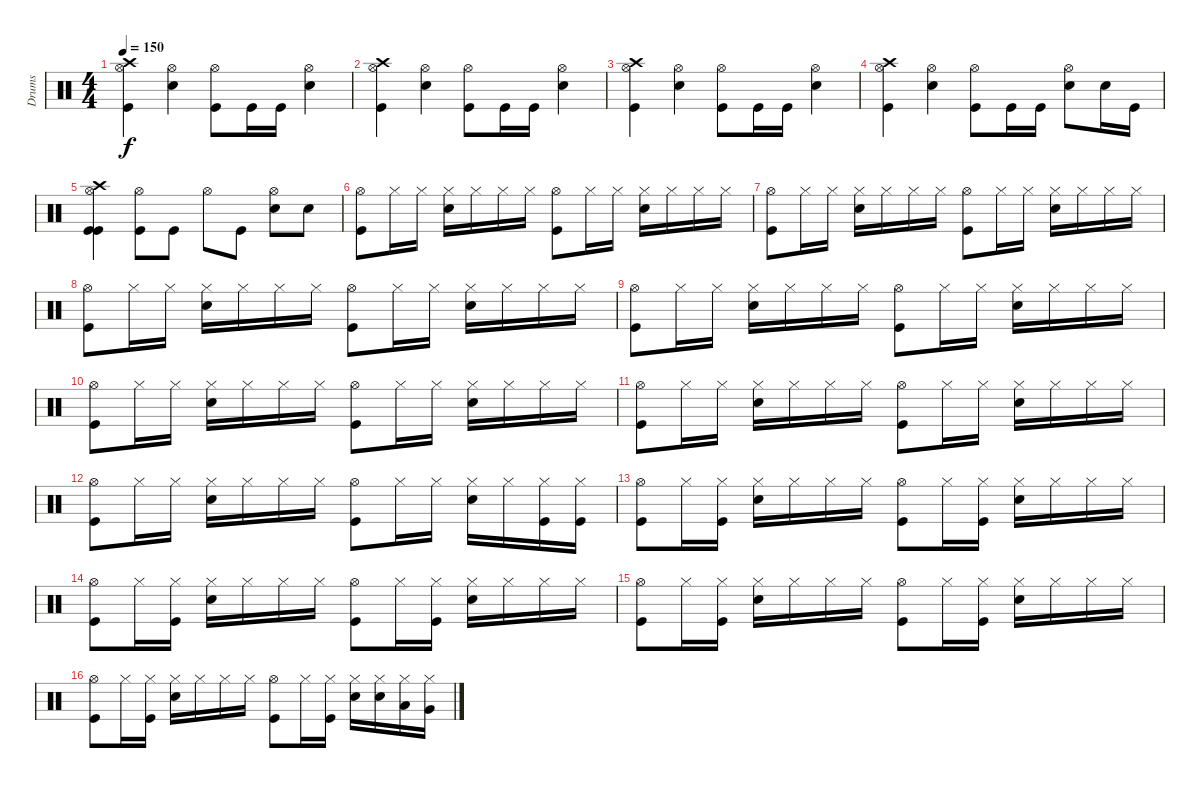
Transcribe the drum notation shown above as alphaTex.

\track ("Drums" "Drums") {instrument percussion}
\staff {score}
\articulation defaults
\ts (4 4)
\tempo 150
\clef neutral
\ks c
("Hi-Hat (open)" "Crash high (hit)" "Kick (hit)").4{dy f} ("Hi-Hat (open)" "Electric Snare (hit)").4 ("Hi-Hat (open)" "Kick (hit)").8 "Kick (hit)".16 "Kick (hit)".16 ("Hi-Hat (open)" "Electric Snare (hit)").4 |
("Hi-Hat (open)" "Crash high (hit)" "Kick (hit)").4 ("Hi-Hat (open)" "Electric Snare (hit)").4 ("Hi-Hat (open)" "Kick (hit)").8 "Kick (hit)".16 "Kick (hit)".16 ("Hi-Hat (open)" "Electric Snare (hit)").4 |
("Hi-Hat (open)" "Crash high (hit)" "Kick (hit)").4 ("Hi-Hat (open)" "Electric Snare (hit)").4 ("Hi-Hat (open)" "Kick (hit)").8 "Kick (hit)".16 "Kick (hit)".16 ("Hi-Hat (open)" "Electric Snare (hit)").4 |
("Hi-Hat (open)" "Crash high (hit)" "Kick (hit)").4 ("Hi-Hat (open)" "Electric Snare (hit)").4 ("Hi-Hat (open)" "Kick (hit)").8 "Kick (hit)".16 "Kick (hit)".16 ("Hi-Hat (open)" "Electric Snare (hit)").8 "Electric Snare (hit)".16 "Kick (hit)".16 |
("Crash high (hit)" "Hi-Hat (open)" "Kick (hit)" "Kick (hit)").4 ("Hi-Hat (open)" "Kick (hit)").8 "Kick (hit)".8 "Hi-Hat (open)".8 "Kick (hit)".8 ("Hi-Hat (open)" "Electric Snare (hit)").8 "Electric Snare (hit)".8 |
("Hi-Hat (open)" "Kick (hit)").8 "Hi-Hat (closed)".16 "Hi-Hat (closed)".16 ("Hi-Hat (closed)" "Electric Snare (hit)").16 "Hi-Hat (closed)".16 "Hi-Hat (closed)".16 "Hi-Hat (closed)".16 ("Hi-Hat (open)" "Kick (hit)").8 "Hi-Hat (closed)".16 "Hi-Hat (closed)".16 ("Hi-Hat (closed)" "Electric Snare (hit)").16 "Hi-Hat (closed)".16 "Hi-Hat (closed)".16 "Hi-Hat (closed)".16 |
("Hi-Hat (open)" "Kick (hit)").8 "Hi-Hat (closed)".16 "Hi-Hat (closed)".16 ("Hi-Hat (closed)" "Electric Snare (hit)").16 "Hi-Hat (closed)".16 "Hi-Hat (closed)".16 "Hi-Hat (closed)".16 ("Hi-Hat (open)" "Kick (hit)").8 "Hi-Hat (closed)".16 "Hi-Hat (closed)".16 ("Hi-Hat (closed)" "Electric Snare (hit)").16 "Hi-Hat (closed)".16 "Hi-Hat (closed)".16 "Hi-Hat (closed)".16 |
("Hi-Hat (open)" "Kick (hit)").8 "Hi-Hat (closed)".16 "Hi-Hat (closed)".16 ("Hi-Hat (closed)" "Electric Snare (hit)").16 "Hi-Hat (closed)".16 "Hi-Hat (closed)".16 "Hi-Hat (closed)".16 ("Hi-Hat (open)" "Kick (hit)").8 "Hi-Hat (closed)".16 "Hi-Hat (closed)".16 ("Hi-Hat (closed)" "Electric Snare (hit)").16 "Hi-Hat (closed)".16 "Hi-Hat (closed)".16 "Hi-Hat (closed)".16 |
("Hi-Hat (open)" "Kick (hit)").8 "Hi-Hat (closed)".16 "Hi-Hat (closed)".16 ("Hi-Hat (closed)" "Electric Snare (hit)").16 "Hi-Hat (closed)".16 "Hi-Hat (closed)".16 "Hi-Hat (closed)".16 ("Hi-Hat (open)" "Kick (hit)").8 "Hi-Hat (closed)".16 "Hi-Hat (closed)".16 ("Hi-Hat (closed)" "Electric Snare (hit)").16 "Hi-Hat (closed)".16 "Hi-Hat (closed)".16 "Hi-Hat (closed)".16 |
("Hi-Hat (open)" "Kick (hit)").8 "Hi-Hat (closed)".16 "Hi-Hat (closed)".16 ("Hi-Hat (closed)" "Electric Snare (hit)").16 "Hi-Hat (closed)".16 "Hi-Hat (closed)".16 "Hi-Hat (closed)".16 ("Hi-Hat (open)" "Kick (hit)").8 "Hi-Hat (closed)".16 "Hi-Hat (closed)".16 ("Hi-Hat (closed)" "Electric Snare (hit)").16 "Hi-Hat (closed)".16 "Hi-Hat (closed)".16 "Hi-Hat (closed)".16 |
("Hi-Hat (open)" "Kick (hit)").8 "Hi-Hat (closed)".16 "Hi-Hat (closed)".16 ("Hi-Hat (closed)" "Electric Snare (hit)").16 "Hi-Hat (closed)".16 "Hi-Hat (closed)".16 "Hi-Hat (closed)".16 ("Hi-Hat (open)" "Kick (hit)").8 "Hi-Hat (closed)".16 "Hi-Hat (closed)".16 ("Hi-Hat (closed)" "Electric Snare (hit)").16 "Hi-Hat (closed)".16 "Hi-Hat (closed)".16 "Hi-Hat (closed)".16 |
("Hi-Hat (open)" "Kick (hit)").8 "Hi-Hat (closed)".16 "Hi-Hat (closed)".16 ("Hi-Hat (closed)" "Electric Snare (hit)").16 "Hi-Hat (closed)".16 "Hi-Hat (closed)".16 "Hi-Hat (closed)".16 ("Hi-Hat (open)" "Kick (hit)").8 "Hi-Hat (closed)".16 "Hi-Hat (closed)".16 ("Hi-Hat (closed)" "Electric Snare (hit)").16 "Hi-Hat (closed)".16 ("Hi-Hat (closed)" "Kick (hit)").16 ("Hi-Hat (closed)" "Kick (hit)").16 |
("Hi-Hat (open)" "Kick (hit)").8 "Hi-Hat (closed)".16 ("Hi-Hat (closed)" "Kick (hit)").16 ("Hi-Hat (closed)" "Electric Snare (hit)").16 "Hi-Hat (closed)".16 "Hi-Hat (closed)".16 "Hi-Hat (closed)".16 ("Hi-Hat (open)" "Kick (hit)").8 "Hi-Hat (closed)".16 ("Hi-Hat (closed)" "Kick (hit)").16 ("Hi-Hat (closed)" "Electric Snare (hit)").16 "Hi-Hat (closed)".16 "Hi-Hat (closed)".16 "Hi-Hat (closed)".16 |
("Hi-Hat (open)" "Kick (hit)").8 "Hi-Hat (closed)".16 ("Hi-Hat (closed)" "Kick (hit)").16 ("Hi-Hat (closed)" "Electric Snare (hit)").16 "Hi-Hat (closed)".16 "Hi-Hat (closed)".16 "Hi-Hat (closed)".16 ("Hi-Hat (open)" "Kick (hit)").8 "Hi-Hat (closed)".16 ("Hi-Hat (closed)" "Kick (hit)").16 ("Hi-Hat (closed)" "Electric Snare (hit)").16 "Hi-Hat (closed)".16 "Hi-Hat (closed)".16 "Hi-Hat (closed)".16 |
("Hi-Hat (open)" "Kick (hit)").8 "Hi-Hat (closed)".16 ("Hi-Hat (closed)" "Kick (hit)").16 ("Hi-Hat (closed)" "Electric Snare (hit)").16 "Hi-Hat (closed)".16 "Hi-Hat (closed)".16 "Hi-Hat (closed)".16 ("Hi-Hat (open)" "Kick (hit)").8 "Hi-Hat (closed)".16 ("Hi-Hat (closed)" "Kick (hit)").16 ("Hi-Hat (closed)" "Electric Snare (hit)").16 "Hi-Hat (closed)".16 "Hi-Hat (closed)".16 "Hi-Hat (closed)".16 |
("Hi-Hat (open)" "Kick (hit)").8 "Hi-Hat (closed)".16 ("Hi-Hat (closed)" "Kick (hit)").16 ("Hi-Hat (closed)" "Electric Snare (hit)").16 "Hi-Hat (closed)".16 "Hi-Hat (closed)".16 "Hi-Hat (closed)".16 ("Hi-Hat (open)" "Kick (hit)").8 "Hi-Hat (closed)".16 ("Hi-Hat (closed)" "Kick (hit)").16 ("Hi-Hat (closed)" "Electric Snare (hit)").16 ("Hi-Hat (closed)" "Electric Snare (hit)").16 ("Hi-Hat (closed)" "Low Tom (hit)").16 ("Hi-Hat (closed)" "Very Low Tom (hit)").16
